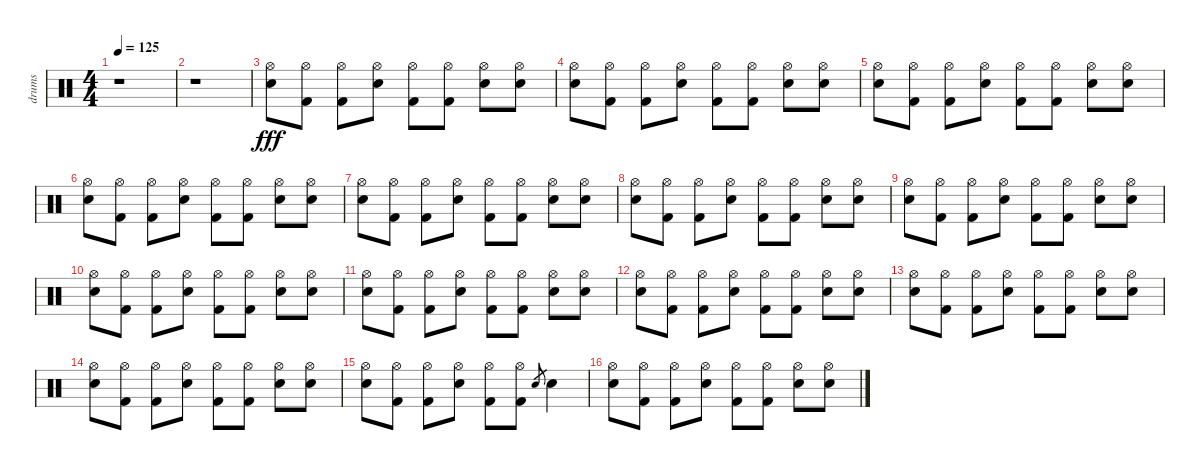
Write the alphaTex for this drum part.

\track ("drums" "drums") {instrument percussion}
\staff {score}
\articulation defaults
\ts (4 4)
\tempo 125
\clef neutral
\ks c
r.1{dy mf} |
r.1 |
("Hi-Hat (open)" "Snare (hit) 2").8{dy fff} ("Hi-Hat (open)" "Kick (hit) 2").8 ("Hi-Hat (open)" "Kick (hit) 2").8 ("Hi-Hat (open)" "Snare (hit) 2").8 ("Hi-Hat (open)" "Kick (hit) 2").8 ("Hi-Hat (open)" "Kick (hit) 2").8 ("Hi-Hat (open)" "Snare (hit) 2").8 ("Hi-Hat (open)" "Snare (hit) 2").8 |
("Hi-Hat (open)" "Snare (hit) 2").8 ("Hi-Hat (open)" "Kick (hit) 2").8 ("Hi-Hat (open)" "Kick (hit) 2").8 ("Hi-Hat (open)" "Snare (hit) 2").8 ("Hi-Hat (open)" "Kick (hit) 2").8 ("Hi-Hat (open)" "Kick (hit) 2").8 ("Hi-Hat (open)" "Snare (hit) 2").8 ("Hi-Hat (open)" "Snare (hit) 2").8 |
("Hi-Hat (open)" "Snare (hit) 2").8 ("Hi-Hat (open)" "Kick (hit) 2").8 ("Hi-Hat (open)" "Kick (hit) 2").8 ("Hi-Hat (open)" "Snare (hit) 2").8 ("Hi-Hat (open)" "Kick (hit) 2").8 ("Hi-Hat (open)" "Kick (hit) 2").8 ("Hi-Hat (open)" "Snare (hit) 2").8 ("Hi-Hat (open)" "Snare (hit) 2").8 |
("Hi-Hat (open)" "Snare (hit) 2").8 ("Hi-Hat (open)" "Kick (hit) 2").8 ("Hi-Hat (open)" "Kick (hit) 2").8 ("Hi-Hat (open)" "Snare (hit) 2").8 ("Hi-Hat (open)" "Kick (hit) 2").8 ("Hi-Hat (open)" "Kick (hit) 2").8 ("Hi-Hat (open)" "Snare (hit) 2").8 ("Hi-Hat (open)" "Snare (hit) 2").8 |
("Hi-Hat (open)" "Snare (hit) 2").8 ("Hi-Hat (open)" "Kick (hit) 2").8 ("Hi-Hat (open)" "Kick (hit) 2").8 ("Hi-Hat (open)" "Snare (hit) 2").8 ("Hi-Hat (open)" "Kick (hit) 2").8 ("Hi-Hat (open)" "Kick (hit) 2").8 ("Hi-Hat (open)" "Snare (hit) 2").8 ("Hi-Hat (open)" "Snare (hit) 2").8 |
("Hi-Hat (open)" "Snare (hit) 2").8 ("Hi-Hat (open)" "Kick (hit) 2").8 ("Hi-Hat (open)" "Kick (hit) 2").8 ("Hi-Hat (open)" "Snare (hit) 2").8 ("Hi-Hat (open)" "Kick (hit) 2").8 ("Hi-Hat (open)" "Kick (hit) 2").8 ("Hi-Hat (open)" "Snare (hit) 2").8 ("Hi-Hat (open)" "Snare (hit) 2").8 |
("Hi-Hat (open)" "Snare (hit) 2").8 ("Hi-Hat (open)" "Kick (hit) 2").8 ("Hi-Hat (open)" "Kick (hit) 2").8 ("Hi-Hat (open)" "Snare (hit) 2").8 ("Hi-Hat (open)" "Kick (hit) 2").8 ("Hi-Hat (open)" "Kick (hit) 2").8 ("Hi-Hat (open)" "Snare (hit) 2").8 ("Hi-Hat (open)" "Snare (hit) 2").8 |
("Hi-Hat (open)" "Snare (hit) 2").8 ("Hi-Hat (open)" "Kick (hit) 2").8 ("Hi-Hat (open)" "Kick (hit) 2").8 ("Hi-Hat (open)" "Snare (hit) 2").8 ("Hi-Hat (open)" "Kick (hit) 2").8 ("Hi-Hat (open)" "Kick (hit) 2").8 ("Hi-Hat (open)" "Snare (hit) 2").8 ("Hi-Hat (open)" "Snare (hit) 2").8 |
("Hi-Hat (open)" "Snare (hit) 2").8 ("Hi-Hat (open)" "Kick (hit) 2").8 ("Hi-Hat (open)" "Kick (hit) 2").8 ("Hi-Hat (open)" "Snare (hit) 2").8 ("Hi-Hat (open)" "Kick (hit) 2").8 ("Hi-Hat (open)" "Kick (hit) 2").8 ("Hi-Hat (open)" "Snare (hit) 2").8 ("Hi-Hat (open)" "Snare (hit) 2").8 |
("Hi-Hat (open)" "Snare (hit) 2").8 ("Hi-Hat (open)" "Kick (hit) 2").8 ("Hi-Hat (open)" "Kick (hit) 2").8 ("Hi-Hat (open)" "Snare (hit) 2").8 ("Hi-Hat (open)" "Kick (hit) 2").8 ("Hi-Hat (open)" "Kick (hit) 2").8 ("Hi-Hat (open)" "Snare (hit) 2").8 ("Hi-Hat (open)" "Snare (hit) 2").8 |
("Hi-Hat (open)" "Snare (hit) 2").8 ("Hi-Hat (open)" "Kick (hit) 2").8 ("Hi-Hat (open)" "Kick (hit) 2").8 ("Hi-Hat (open)" "Snare (hit) 2").8 ("Hi-Hat (open)" "Kick (hit) 2").8 ("Hi-Hat (open)" "Kick (hit) 2").8 ("Hi-Hat (open)" "Snare (hit) 2").8 ("Hi-Hat (open)" "Snare (hit) 2").8 |
("Hi-Hat (open)" "Snare (hit) 2").8 ("Hi-Hat (open)" "Kick (hit) 2").8 ("Hi-Hat (open)" "Kick (hit) 2").8 ("Hi-Hat (open)" "Snare (hit) 2").8 ("Hi-Hat (open)" "Kick (hit) 2").8 ("Hi-Hat (open)" "Kick (hit) 2").8 ("Hi-Hat (open)" "Snare (hit) 2").8 ("Hi-Hat (open)" "Snare (hit) 2").8 |
("Hi-Hat (open)" "Snare (hit) 2").8 ("Hi-Hat (open)" "Kick (hit) 2").8 ("Hi-Hat (open)" "Kick (hit) 2").8 ("Hi-Hat (open)" "Snare (hit) 2").8 ("Hi-Hat (open)" "Kick (hit) 2").8 ("Hi-Hat (open)" "Kick (hit) 2").8 "Snare (hit) 2".8{gr} "Snare (hit) 2".4 |
("Hi-Hat (open)" "Snare (hit) 2").8 ("Hi-Hat (open)" "Kick (hit) 2").8 ("Hi-Hat (open)" "Kick (hit) 2").8 ("Hi-Hat (open)" "Snare (hit) 2").8 ("Hi-Hat (open)" "Kick (hit) 2").8 ("Hi-Hat (open)" "Kick (hit) 2").8 ("Hi-Hat (open)" "Snare (hit) 2").8 ("Hi-Hat (open)" "Snare (hit) 2").8
